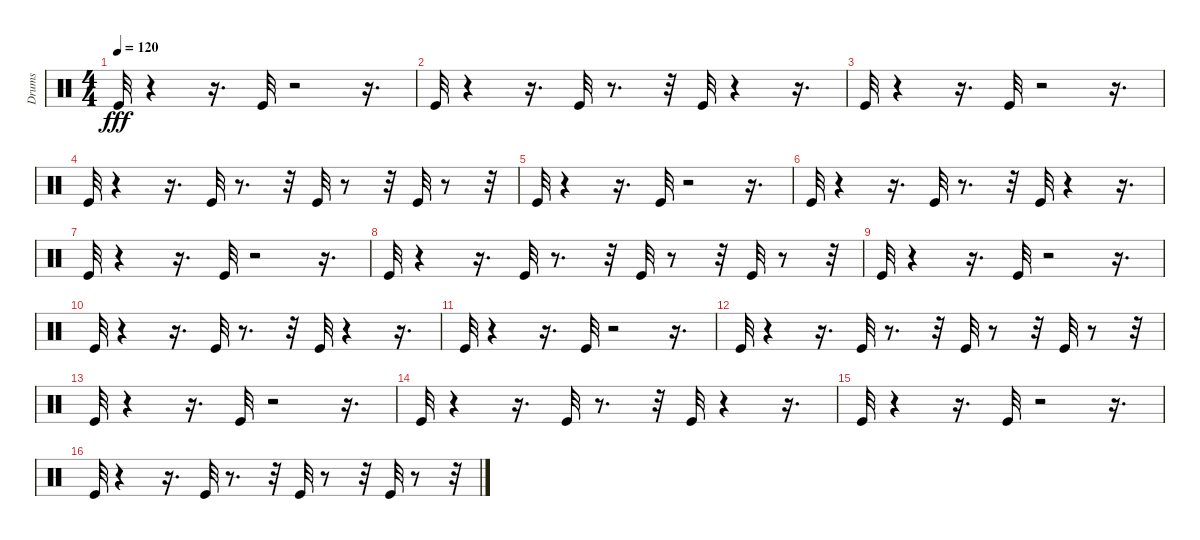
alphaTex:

\track ("Drums" "Drums") {instrument percussion}
\staff {score}
\articulation defaults
\ts (4 4)
\tempo 120
\clef neutral
\ks c "Kick (hit)".32{dy fff}
r.4 r.16{d} "Kick (hit)".32 r.2 r.16{d} |
"Kick (hit)".32 r.4 r.16{d} "Kick (hit)".32 r.8{d} r.32 "Kick (hit)".32 r.4 r.16{d} |
"Kick (hit)".32 r.4 r.16{d} "Kick (hit)".32 r.2 r.16{d} |
"Kick (hit)".32 r.4 r.16{d} "Kick (hit)".32 r.8{d} r.32 "Kick (hit)".32 r.8 r.32 "Kick (hit)".32 r.8 r.32 |
"Kick (hit)".32 r.4 r.16{d} "Kick (hit)".32 r.2 r.16{d} |
"Kick (hit)".32 r.4 r.16{d} "Kick (hit)".32 r.8{d} r.32 "Kick (hit)".32 r.4 r.16{d} |
"Kick (hit)".32 r.4 r.16{d} "Kick (hit)".32 r.2 r.16{d} |
"Kick (hit)".32 r.4 r.16{d} "Kick (hit)".32 r.8{d} r.32 "Kick (hit)".32 r.8 r.32 "Kick (hit)".32 r.8 r.32 |
"Kick (hit)".32 r.4 r.16{d} "Kick (hit)".32 r.2 r.16{d} |
"Kick (hit)".32 r.4 r.16{d} "Kick (hit)".32 r.8{d} r.32 "Kick (hit)".32 r.4 r.16{d} |
"Kick (hit)".32 r.4 r.16{d} "Kick (hit)".32 r.2 r.16{d} |
"Kick (hit)".32 r.4 r.16{d} "Kick (hit)".32 r.8{d} r.32 "Kick (hit)".32 r.8 r.32 "Kick (hit)".32 r.8 r.32 |
"Kick (hit)".32 r.4 r.16{d} "Kick (hit)".32 r.2 r.16{d} |
"Kick (hit)".32 r.4 r.16{d} "Kick (hit)".32 r.8{d} r.32 "Kick (hit)".32 r.4 r.16{d} |
"Kick (hit)".32 r.4 r.16{d} "Kick (hit)".32 r.2 r.16{d} |
"Kick (hit)".32 r.4 r.16{d} "Kick (hit)".32 r.8{d} r.32 "Kick (hit)".32 r.8 r.32 "Kick (hit)".32 r.8 r.32
